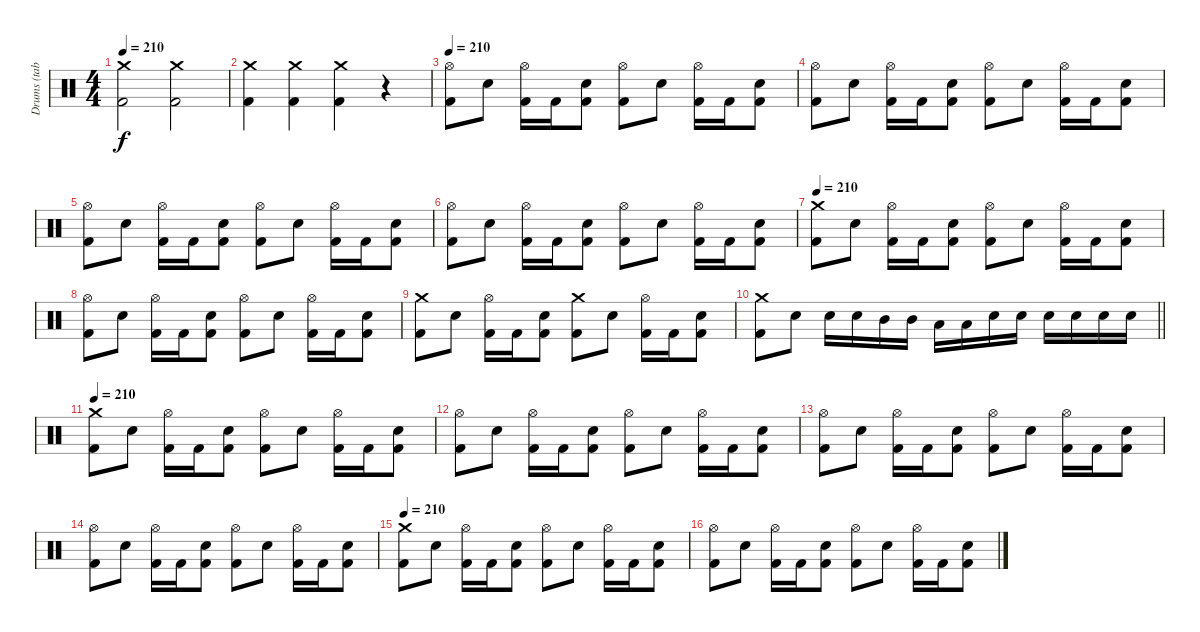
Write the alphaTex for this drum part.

\track ("Drums (tabbed by bassman213293)" "Drums (tab") {instrument percussion}
\staff {score}
\articulation defaults
\ts (4 4)
\tempo 210
\clef neutral
\ks c
("Crash medium (hit)" "Kick (hit) 2").2{dy f} ("Crash medium (hit)" "Kick (hit) 2").2 |
("Crash medium (hit)" "Kick (hit) 2").4 ("Crash medium (hit)" "Kick (hit) 2").4 ("Crash medium (hit)" "Kick (hit) 2").4 r.4 |
\tempo 210
("Hi-Hat (open)" "Kick (hit) 2").8 "Electric Snare (hit)".8 ("Hi-Hat (open)" "Kick (hit) 2").16 "Kick (hit) 2".16 ("Electric Snare (hit)" "Kick (hit) 2").8 ("Hi-Hat (open)" "Kick (hit) 2").8 "Electric Snare (hit)".8 ("Hi-Hat (open)" "Kick (hit) 2").16 "Kick (hit) 2".16 ("Electric Snare (hit)" "Kick (hit) 2").8 |
("Hi-Hat (open)" "Kick (hit) 2").8 "Electric Snare (hit)".8 ("Hi-Hat (open)" "Kick (hit) 2").16 "Kick (hit) 2".16 ("Electric Snare (hit)" "Kick (hit) 2").8 ("Hi-Hat (open)" "Kick (hit) 2").8 "Electric Snare (hit)".8 ("Hi-Hat (open)" "Kick (hit) 2").16 "Kick (hit) 2".16 ("Electric Snare (hit)" "Kick (hit) 2").8 |
("Hi-Hat (open)" "Kick (hit) 2").8 "Electric Snare (hit)".8 ("Hi-Hat (open)" "Kick (hit) 2").16 "Kick (hit) 2".16 ("Electric Snare (hit)" "Kick (hit) 2").8 ("Hi-Hat (open)" "Kick (hit) 2").8 "Electric Snare (hit)".8 ("Hi-Hat (open)" "Kick (hit) 2").16 "Kick (hit) 2".16 ("Electric Snare (hit)" "Kick (hit) 2").8 |
("Hi-Hat (open)" "Kick (hit) 2").8 "Electric Snare (hit)".8 ("Hi-Hat (open)" "Kick (hit) 2").16 "Kick (hit) 2".16 ("Electric Snare (hit)" "Kick (hit) 2").8 ("Hi-Hat (open)" "Kick (hit) 2").8 "Electric Snare (hit)".8 ("Hi-Hat (open)" "Kick (hit) 2").16 "Kick (hit) 2".16 ("Electric Snare (hit)" "Kick (hit) 2").8 |
\tempo 210
("Crash medium (hit)" "Kick (hit) 2").8 "Electric Snare (hit)".8 ("Hi-Hat (open)" "Kick (hit) 2").16 "Kick (hit) 2".16 ("Electric Snare (hit)" "Kick (hit) 2").8 ("Hi-Hat (open)" "Kick (hit) 2").8 "Electric Snare (hit)".8 ("Hi-Hat (open)" "Kick (hit) 2").16 "Kick (hit) 2".16 ("Electric Snare (hit)" "Kick (hit) 2").8 |
("Hi-Hat (open)" "Kick (hit) 2").8 "Electric Snare (hit)".8 ("Hi-Hat (open)" "Kick (hit) 2").16 "Kick (hit) 2".16 ("Electric Snare (hit)" "Kick (hit) 2").8 ("Hi-Hat (open)" "Kick (hit) 2").8 "Electric Snare (hit)".8 ("Hi-Hat (open)" "Kick (hit) 2").16 "Kick (hit) 2".16 ("Electric Snare (hit)" "Kick (hit) 2").8 |
("Crash medium (hit)" "Kick (hit) 2").8 "Electric Snare (hit)".8 ("Hi-Hat (open)" "Kick (hit) 2").16 "Kick (hit) 2".16 ("Electric Snare (hit)" "Kick (hit) 2").8 ("Crash medium (hit)" "Kick (hit) 2").8 "Electric Snare (hit)".8 ("Hi-Hat (open)" "Kick (hit) 2").16 "Kick (hit) 2".16 ("Electric Snare (hit)" "Kick (hit) 2").8 |
\barLineRight lightlight
("Crash medium (hit)" "Kick (hit) 2").8 "Electric Snare (hit)".8 "Electric Snare (hit)".16 "Electric Snare (hit)".16 "Mid Tom (hit)".16 "Mid Tom (hit)".16 "Low Tom (hit)".16 "Low Tom (hit)".16 "Electric Snare (hit)".16 "Electric Snare (hit)".16 "Electric Snare (hit)".16 "Electric Snare (hit)".16 "Electric Snare (hit)".16 "Electric Snare (hit)".16 |
\tempo 210
("Crash medium (hit)" "Kick (hit) 2").8 "Electric Snare (hit)".8 ("Hi-Hat (open)" "Kick (hit) 2").16 "Kick (hit) 2".16 ("Electric Snare (hit)" "Kick (hit) 2").8 ("Hi-Hat (open)" "Kick (hit) 2").8 "Electric Snare (hit)".8 ("Hi-Hat (open)" "Kick (hit) 2").16 "Kick (hit) 2".16 ("Electric Snare (hit)" "Kick (hit) 2").8 |
("Hi-Hat (open)" "Kick (hit) 2").8 "Electric Snare (hit)".8 ("Hi-Hat (open)" "Kick (hit) 2").16 "Kick (hit) 2".16 ("Electric Snare (hit)" "Kick (hit) 2").8 ("Hi-Hat (open)" "Kick (hit) 2").8 "Electric Snare (hit)".8 ("Hi-Hat (open)" "Kick (hit) 2").16 "Kick (hit) 2".16 ("Electric Snare (hit)" "Kick (hit) 2").8 |
("Hi-Hat (open)" "Kick (hit) 2").8 "Electric Snare (hit)".8 ("Hi-Hat (open)" "Kick (hit) 2").16 "Kick (hit) 2".16 ("Electric Snare (hit)" "Kick (hit) 2").8 ("Hi-Hat (open)" "Kick (hit) 2").8 "Electric Snare (hit)".8 ("Hi-Hat (open)" "Kick (hit) 2").16 "Kick (hit) 2".16 ("Electric Snare (hit)" "Kick (hit) 2").8 |
("Hi-Hat (open)" "Kick (hit) 2").8 "Electric Snare (hit)".8 ("Hi-Hat (open)" "Kick (hit) 2").16 "Kick (hit) 2".16 ("Electric Snare (hit)" "Kick (hit) 2").8 ("Hi-Hat (open)" "Kick (hit) 2").8 "Electric Snare (hit)".8 ("Hi-Hat (open)" "Kick (hit) 2").16 "Kick (hit) 2".16 ("Electric Snare (hit)" "Kick (hit) 2").8 |
\tempo 210
("Crash medium (hit)" "Kick (hit) 2").8 "Electric Snare (hit)".8 ("Hi-Hat (open)" "Kick (hit) 2").16 "Kick (hit) 2".16 ("Electric Snare (hit)" "Kick (hit) 2").8 ("Hi-Hat (open)" "Kick (hit) 2").8 "Electric Snare (hit)".8 ("Hi-Hat (open)" "Kick (hit) 2").16 "Kick (hit) 2".16 ("Electric Snare (hit)" "Kick (hit) 2").8 |
("Hi-Hat (open)" "Kick (hit) 2").8 "Electric Snare (hit)".8 ("Hi-Hat (open)" "Kick (hit) 2").16 "Kick (hit) 2".16 ("Electric Snare (hit)" "Kick (hit) 2").8 ("Hi-Hat (open)" "Kick (hit) 2").8 "Electric Snare (hit)".8 ("Hi-Hat (open)" "Kick (hit) 2").16 "Kick (hit) 2".16 ("Electric Snare (hit)" "Kick (hit) 2").8
